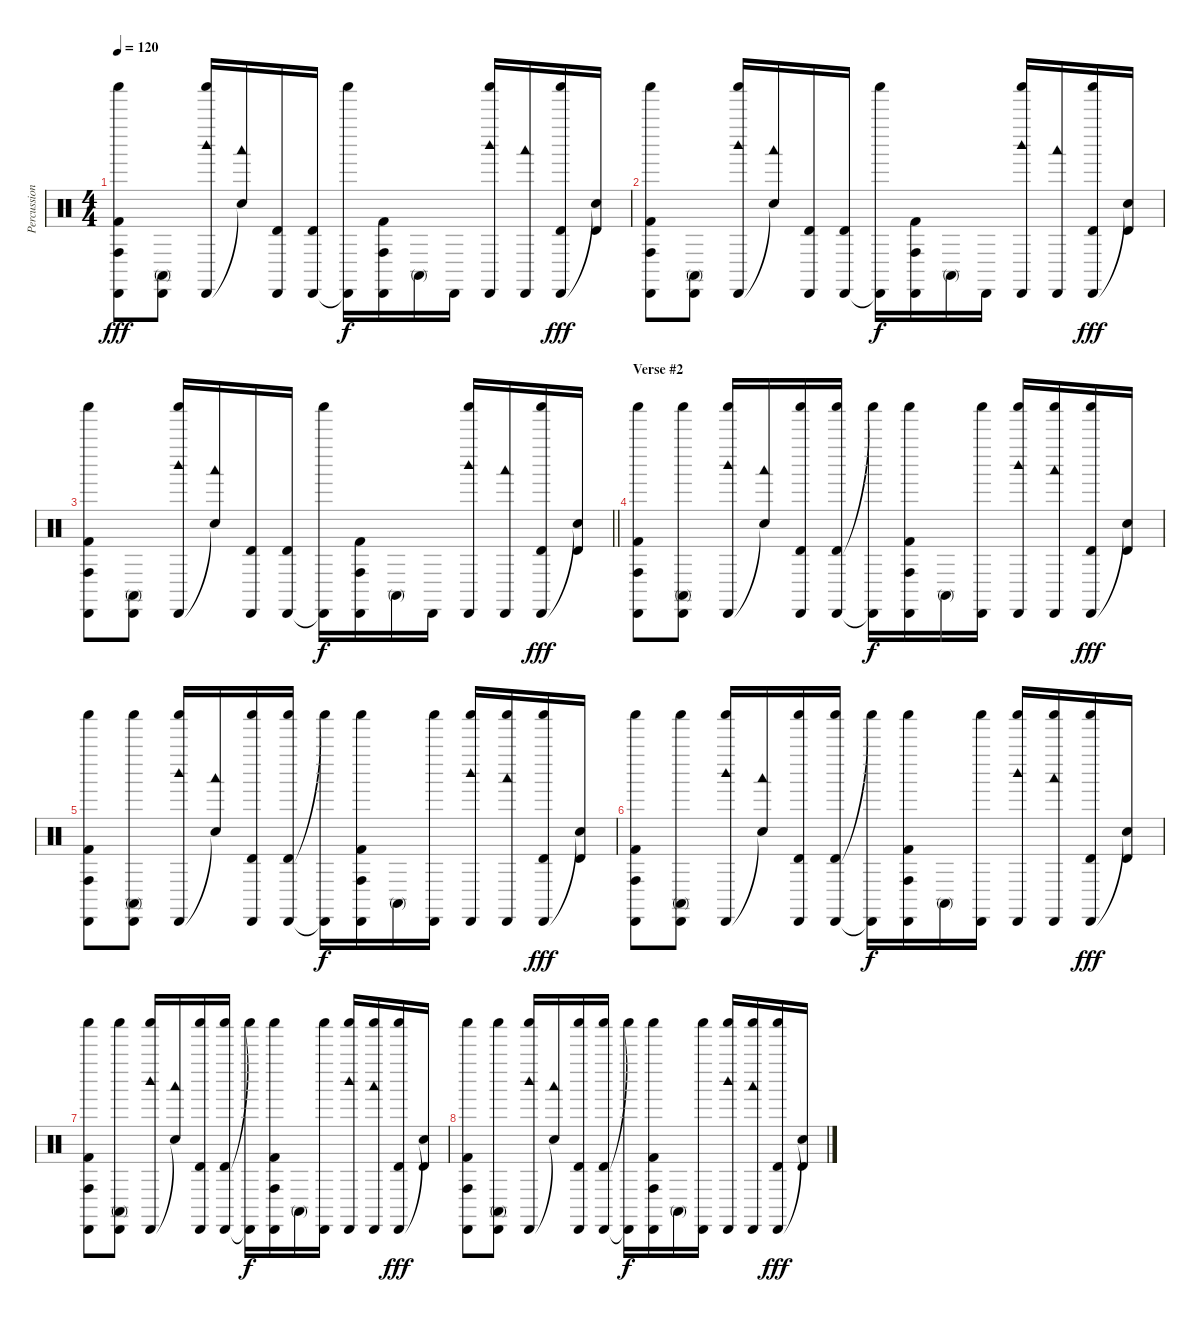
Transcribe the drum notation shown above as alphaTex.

\track ("Percussion" "Percussion") {instrument percussion}
\staff {score}
\articulation defaults
\ts (4 4)
\tempo 120
\clef neutral
\ks c
("Cabasa (hit)" "Conga high (hit)" "Kick (hit) 2" "Shaker (hit)").8{dy fff} ("Cabasa (hit)" "Conga high (mute)").8 ("Cabasa (hit)" "Woodblock high (hit)" "Shaker (hit)").16 ("Snare (hit)"{t} "Woodblock low (hit)").16 ("Cabasa (hit)" "Timbale high (hit)").16 ("Cabasa (hit)" "Timbale high (hit)").16 ("Cabasa (hit)"{t} "Shaker (hit)").16{dy f} ("Cabasa (hit)" "Conga high (hit)" "Kick (hit) 2").16 "Conga high (mute)".16 "Cabasa (hit)".16 ("Cabasa (hit)" "Woodblock high (hit)" "Shaker (hit)").16 ("Cabasa (hit)" "Woodblock low (hit)").16 ("Cabasa (hit)" "Timbale high (hit)" "Shaker (hit)").16{dy fff} ("Snare (hit)"{t} "Timbale high (hit)").16 |
("Cabasa (hit)" "Conga high (hit)" "Kick (hit) 2" "Shaker (hit)").8 ("Cabasa (hit)" "Conga high (mute)").8 ("Cabasa (hit)" "Woodblock high (hit)" "Shaker (hit)").16 ("Snare (hit)"{t} "Woodblock low (hit)").16 ("Cabasa (hit)" "Timbale high (hit)").16 ("Cabasa (hit)" "Timbale high (hit)").16 ("Cabasa (hit)"{t} "Shaker (hit)").16{dy f} ("Cabasa (hit)" "Conga high (hit)" "Kick (hit) 2").16 "Conga high (mute)".16 "Cabasa (hit)".16 ("Cabasa (hit)" "Woodblock high (hit)" "Shaker (hit)").16 ("Cabasa (hit)" "Woodblock low (hit)").16 ("Cabasa (hit)" "Timbale high (hit)" "Shaker (hit)").16{dy fff} ("Snare (hit)"{t} "Timbale high (hit)").16 |
\barLineRight lightlight
("Cabasa (hit)" "Conga high (hit)" "Kick (hit) 2" "Shaker (hit)").8 ("Cabasa (hit)" "Conga high (mute)").8 ("Cabasa (hit)" "Woodblock high (hit)" "Shaker (hit)").16 ("Snare (hit)"{t} "Woodblock low (hit)").16 ("Cabasa (hit)" "Timbale high (hit)").16 ("Cabasa (hit)" "Timbale high (hit)").16 ("Cabasa (hit)"{t} "Shaker (hit)").16{dy f} ("Cabasa (hit)" "Conga high (hit)" "Kick (hit) 2").16 "Conga high (mute)".16 "Cabasa (hit)".16 ("Cabasa (hit)" "Woodblock high (hit)" "Shaker (hit)").16 ("Cabasa (hit)" "Woodblock low (hit)").16 ("Cabasa (hit)" "Timbale high (hit)" "Shaker (hit)").16{dy fff} ("Snare (hit)"{t} "Timbale high (hit)").16 |
\section ("" "Verse #2")
("Cabasa (hit)" "Conga high (hit)" "Kick (hit) 2" "Shaker (hit)").8 ("Cabasa (hit)" "Conga high (mute)" "Shaker (hit)").8 ("Cabasa (hit)" "Woodblock high (hit)" "Shaker (hit)").16 ("Snare (hit)"{t} "Woodblock low (hit)").16 ("Cabasa (hit)" "Timbale high (hit)" "Shaker (hit)").16 ("Cabasa (hit)" "Timbale high (hit)" "Shaker (hit)").16 ("Cabasa (hit)"{t} "Shaker (hit)"{t}).16{dy f} ("Cabasa (hit)" "Conga high (hit)" "Kick (hit) 2" "Shaker (hit)").16 "Conga high (mute)".16 ("Cabasa (hit)" "Shaker (hit)").16 ("Cabasa (hit)" "Woodblock high (hit)" "Shaker (hit)").16 ("Cabasa (hit)" "Woodblock low (hit)" "Shaker (hit)").16 ("Cabasa (hit)" "Timbale high (hit)" "Shaker (hit)").16{dy fff} ("Snare (hit)"{t} "Timbale high (hit)").16 |
("Cabasa (hit)" "Conga high (hit)" "Kick (hit) 2" "Shaker (hit)").8 ("Cabasa (hit)" "Conga high (mute)" "Shaker (hit)").8 ("Cabasa (hit)" "Woodblock high (hit)" "Shaker (hit)").16 ("Snare (hit)"{t} "Woodblock low (hit)").16 ("Cabasa (hit)" "Timbale high (hit)" "Shaker (hit)").16 ("Cabasa (hit)" "Timbale high (hit)" "Shaker (hit)").16 ("Cabasa (hit)"{t} "Shaker (hit)"{t}).16{dy f} ("Cabasa (hit)" "Conga high (hit)" "Kick (hit) 2" "Shaker (hit)").16 "Conga high (mute)".16 ("Cabasa (hit)" "Shaker (hit)").16 ("Cabasa (hit)" "Woodblock high (hit)" "Shaker (hit)").16 ("Cabasa (hit)" "Woodblock low (hit)" "Shaker (hit)").16 ("Cabasa (hit)" "Timbale high (hit)" "Shaker (hit)").16{dy fff} ("Snare (hit)"{t} "Timbale high (hit)").16 |
("Cabasa (hit)" "Conga high (hit)" "Kick (hit) 2" "Shaker (hit)").8 ("Cabasa (hit)" "Conga high (mute)" "Shaker (hit)").8 ("Cabasa (hit)" "Woodblock high (hit)" "Shaker (hit)").16 ("Snare (hit)"{t} "Woodblock low (hit)").16 ("Cabasa (hit)" "Timbale high (hit)" "Shaker (hit)").16 ("Cabasa (hit)" "Timbale high (hit)" "Shaker (hit)").16 ("Cabasa (hit)"{t} "Shaker (hit)"{t}).16{dy f} ("Cabasa (hit)" "Conga high (hit)" "Kick (hit) 2" "Shaker (hit)").16 "Conga high (mute)".16 ("Cabasa (hit)" "Shaker (hit)").16 ("Cabasa (hit)" "Woodblock high (hit)" "Shaker (hit)").16 ("Cabasa (hit)" "Woodblock low (hit)" "Shaker (hit)").16 ("Cabasa (hit)" "Timbale high (hit)" "Shaker (hit)").16{dy fff} ("Snare (hit)"{t} "Timbale high (hit)").16 |
("Cabasa (hit)" "Conga high (hit)" "Kick (hit) 2" "Shaker (hit)").8 ("Cabasa (hit)" "Conga high (mute)" "Shaker (hit)").8 ("Cabasa (hit)" "Woodblock high (hit)" "Shaker (hit)").16 ("Snare (hit)"{t} "Woodblock low (hit)").16 ("Cabasa (hit)" "Timbale high (hit)" "Shaker (hit)").16 ("Cabasa (hit)" "Timbale high (hit)" "Shaker (hit)").16 ("Cabasa (hit)"{t} "Shaker (hit)"{t}).16{dy f} ("Cabasa (hit)" "Conga high (hit)" "Kick (hit) 2" "Shaker (hit)").16 "Conga high (mute)".16 ("Cabasa (hit)" "Shaker (hit)").16 ("Cabasa (hit)" "Woodblock high (hit)" "Shaker (hit)").16 ("Cabasa (hit)" "Woodblock low (hit)" "Shaker (hit)").16 ("Cabasa (hit)" "Timbale high (hit)" "Shaker (hit)").16{dy fff} ("Snare (hit)"{t} "Timbale high (hit)").16 |
("Cabasa (hit)" "Conga high (hit)" "Kick (hit) 2" "Shaker (hit)").8 ("Cabasa (hit)" "Conga high (mute)" "Shaker (hit)").8 ("Cabasa (hit)" "Woodblock high (hit)" "Shaker (hit)").16 ("Snare (hit)"{t} "Woodblock low (hit)").16 ("Cabasa (hit)" "Timbale high (hit)" "Shaker (hit)").16 ("Cabasa (hit)" "Timbale high (hit)" "Shaker (hit)").16 ("Cabasa (hit)"{t} "Shaker (hit)"{t}).16{dy f} ("Cabasa (hit)" "Conga high (hit)" "Kick (hit) 2" "Shaker (hit)").16 "Conga high (mute)".16 ("Cabasa (hit)" "Shaker (hit)").16 ("Cabasa (hit)" "Woodblock high (hit)" "Shaker (hit)").16 ("Cabasa (hit)" "Woodblock low (hit)" "Shaker (hit)").16 ("Cabasa (hit)" "Timbale high (hit)" "Shaker (hit)").16{dy fff} ("Snare (hit)"{t} "Timbale high (hit)").16
